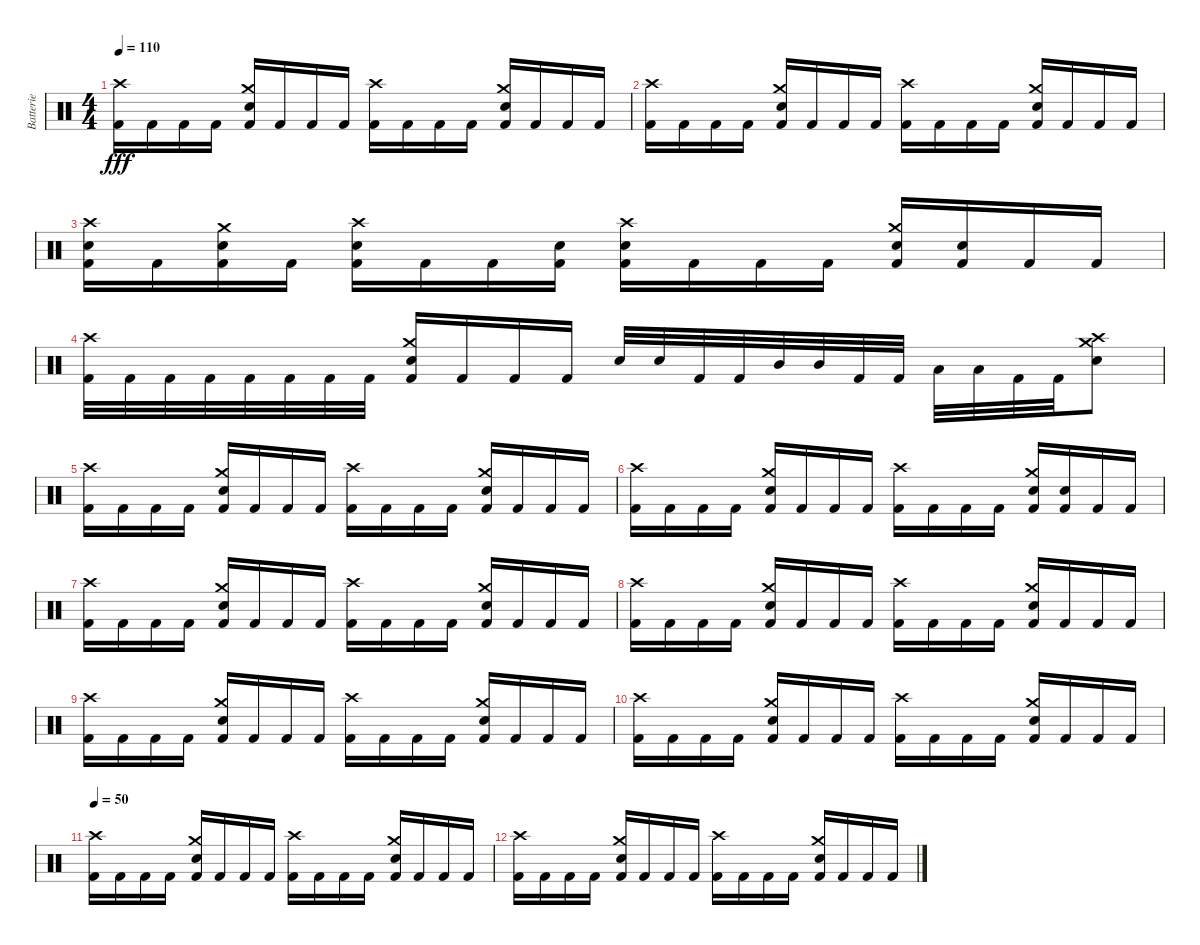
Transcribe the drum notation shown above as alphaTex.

\track ("Batterie" "Batterie") {instrument percussion}
\staff {score}
\articulation defaults
\ts (4 4)
\tempo 110
\clef neutral
\ks c
("Crash high (hit)" "Kick (hit) 2").16{dy fff} "Kick (hit) 2".16 "Kick (hit) 2".16 "Kick (hit) 2".16 ("Crash medium (hit)" "Electric Snare (hit)" "Kick (hit) 2").16 "Kick (hit) 2".16 "Kick (hit) 2".16 "Kick (hit) 2".16 ("Crash high (hit)" "Kick (hit) 2").16 "Kick (hit) 2".16 "Kick (hit) 2".16 "Kick (hit) 2".16 ("Crash medium (hit)" "Electric Snare (hit)" "Kick (hit) 2").16 "Kick (hit) 2".16 "Kick (hit) 2".16 "Kick (hit) 2".16 |
("Crash high (hit)" "Kick (hit) 2").16 "Kick (hit) 2".16 "Kick (hit) 2".16 "Kick (hit) 2".16 ("Crash medium (hit)" "Electric Snare (hit)" "Kick (hit) 2").16 "Kick (hit) 2".16 "Kick (hit) 2".16 "Kick (hit) 2".16 ("Crash high (hit)" "Kick (hit) 2").16 "Kick (hit) 2".16 "Kick (hit) 2".16 "Kick (hit) 2".16 ("Crash medium (hit)" "Electric Snare (hit)" "Kick (hit) 2").16 "Kick (hit) 2".16 "Kick (hit) 2".16 "Kick (hit) 2".16 |
("Crash high (hit)" "Electric Snare (hit)" "Kick (hit) 2").16 "Kick (hit) 2".16 ("Crash medium (hit)" "Electric Snare (hit)" "Kick (hit) 2").16 "Kick (hit) 2".16 ("Crash high (hit)" "Electric Snare (hit)" "Kick (hit) 2").16 "Kick (hit) 2".16 "Kick (hit) 2".16 ("Electric Snare (hit)" "Kick (hit) 2").16 ("Crash high (hit)" "Electric Snare (hit)" "Kick (hit) 2").16 "Kick (hit) 2".16 "Kick (hit) 2".16 "Kick (hit) 2".16 ("Crash medium (hit)" "Electric Snare (hit)" "Kick (hit) 2").16 ("Electric Snare (hit)" "Kick (hit) 2").16 "Kick (hit) 2".16 "Kick (hit) 2".16 |
("Crash high (hit)" "Kick (hit) 2").32 "Kick (hit) 2".32 "Kick (hit) 2".32 "Kick (hit) 2".32 "Kick (hit) 2".32 "Kick (hit) 2".32 "Kick (hit) 2".32 "Kick (hit) 2".32 ("Crash medium (hit)" "Electric Snare (hit)" "Kick (hit) 2").16 "Kick (hit) 2".16 "Kick (hit) 2".16 "Kick (hit) 2".16 "Electric Snare (hit)".32 "Electric Snare (hit)".32 "Kick (hit) 2".32 "Kick (hit) 2".32 "Mid Tom (hit)".32 "Mid Tom (hit)".32 "Kick (hit) 2".32 "Kick (hit) 2".32 "Low Tom (hit)".32 "Low Tom (hit)".32 "Kick (hit) 2".32 "Kick (hit) 2".32 ("Crash high (hit)" "Crash medium (hit)" "Electric Snare (hit)").8 |
("Crash high (hit)" "Kick (hit) 2").16 "Kick (hit) 2".16 "Kick (hit) 2".16 "Kick (hit) 2".16 ("Crash medium (hit)" "Electric Snare (hit)" "Kick (hit) 2").16 "Kick (hit) 2".16 "Kick (hit) 2".16 "Kick (hit) 2".16 ("Crash high (hit)" "Kick (hit) 2").16 "Kick (hit) 2".16 "Kick (hit) 2".16 "Kick (hit) 2".16 ("Crash medium (hit)" "Electric Snare (hit)" "Kick (hit) 2").16 "Kick (hit) 2".16 "Kick (hit) 2".16 "Kick (hit) 2".16 |
("Crash high (hit)" "Kick (hit) 2").16 "Kick (hit) 2".16 "Kick (hit) 2".16 "Kick (hit) 2".16 ("Crash medium (hit)" "Electric Snare (hit)" "Kick (hit) 2").16 "Kick (hit) 2".16 "Kick (hit) 2".16 "Kick (hit) 2".16 ("Crash high (hit)" "Kick (hit) 2").16 "Kick (hit) 2".16 "Kick (hit) 2".16 "Kick (hit) 2".16 ("Crash medium (hit)" "Electric Snare (hit)" "Kick (hit) 2").16 ("Electric Snare (hit)" "Kick (hit) 2").16 "Kick (hit) 2".16 "Kick (hit) 2".16 |
("Crash high (hit)" "Kick (hit) 2").16 "Kick (hit) 2".16 "Kick (hit) 2".16 "Kick (hit) 2".16 ("Crash medium (hit)" "Electric Snare (hit)" "Kick (hit) 2").16 "Kick (hit) 2".16 "Kick (hit) 2".16 "Kick (hit) 2".16 ("Crash high (hit)" "Kick (hit) 2").16 "Kick (hit) 2".16 "Kick (hit) 2".16 "Kick (hit) 2".16 ("Crash medium (hit)" "Electric Snare (hit)" "Kick (hit) 2").16 "Kick (hit) 2".16 "Kick (hit) 2".16 "Kick (hit) 2".16 |
("Crash high (hit)" "Kick (hit) 2").16 "Kick (hit) 2".16 "Kick (hit) 2".16 "Kick (hit) 2".16 ("Crash medium (hit)" "Electric Snare (hit)" "Kick (hit) 2").16 "Kick (hit) 2".16 "Kick (hit) 2".16 "Kick (hit) 2".16 ("Crash high (hit)" "Kick (hit) 2").16 "Kick (hit) 2".16 "Kick (hit) 2".16 "Kick (hit) 2".16 ("Crash medium (hit)" "Electric Snare (hit)" "Kick (hit) 2").16 "Kick (hit) 2".16 "Kick (hit) 2".16 "Kick (hit) 2".16 |
("Crash high (hit)" "Kick (hit) 2").16 "Kick (hit) 2".16 "Kick (hit) 2".16 "Kick (hit) 2".16 ("Crash medium (hit)" "Electric Snare (hit)" "Kick (hit) 2").16 "Kick (hit) 2".16 "Kick (hit) 2".16 "Kick (hit) 2".16 ("Crash high (hit)" "Kick (hit) 2").16 "Kick (hit) 2".16 "Kick (hit) 2".16 "Kick (hit) 2".16 ("Crash medium (hit)" "Electric Snare (hit)" "Kick (hit) 2").16 "Kick (hit) 2".16 "Kick (hit) 2".16 "Kick (hit) 2".16 |
("Crash high (hit)" "Kick (hit) 2").16 "Kick (hit) 2".16 "Kick (hit) 2".16 "Kick (hit) 2".16 ("Crash medium (hit)" "Electric Snare (hit)" "Kick (hit) 2").16 "Kick (hit) 2".16 "Kick (hit) 2".16 "Kick (hit) 2".16 ("Crash high (hit)" "Kick (hit) 2").16 "Kick (hit) 2".16 "Kick (hit) 2".16 "Kick (hit) 2".16 ("Crash medium (hit)" "Electric Snare (hit)" "Kick (hit) 2").16 "Kick (hit) 2".16 "Kick (hit) 2".16 "Kick (hit) 2".16 |
\tempo 50
("Crash high (hit)" "Kick (hit) 2").16 "Kick (hit) 2".16 "Kick (hit) 2".16 "Kick (hit) 2".16 ("Crash medium (hit)" "Electric Snare (hit)" "Kick (hit) 2").16 "Kick (hit) 2".16 "Kick (hit) 2".16 "Kick (hit) 2".16 ("Crash high (hit)" "Kick (hit) 2").16 "Kick (hit) 2".16 "Kick (hit) 2".16 "Kick (hit) 2".16 ("Crash medium (hit)" "Electric Snare (hit)" "Kick (hit) 2").16 "Kick (hit) 2".16 "Kick (hit) 2".16 "Kick (hit) 2".16 |
("Crash high (hit)" "Kick (hit) 2").16 "Kick (hit) 2".16 "Kick (hit) 2".16 "Kick (hit) 2".16 ("Crash medium (hit)" "Electric Snare (hit)" "Kick (hit) 2").16 "Kick (hit) 2".16 "Kick (hit) 2".16 "Kick (hit) 2".16 ("Crash high (hit)" "Kick (hit) 2").16 "Kick (hit) 2".16 "Kick (hit) 2".16 "Kick (hit) 2".16 ("Crash medium (hit)" "Electric Snare (hit)" "Kick (hit) 2").16 "Kick (hit) 2".16 "Kick (hit) 2".16 "Kick (hit) 2".16
